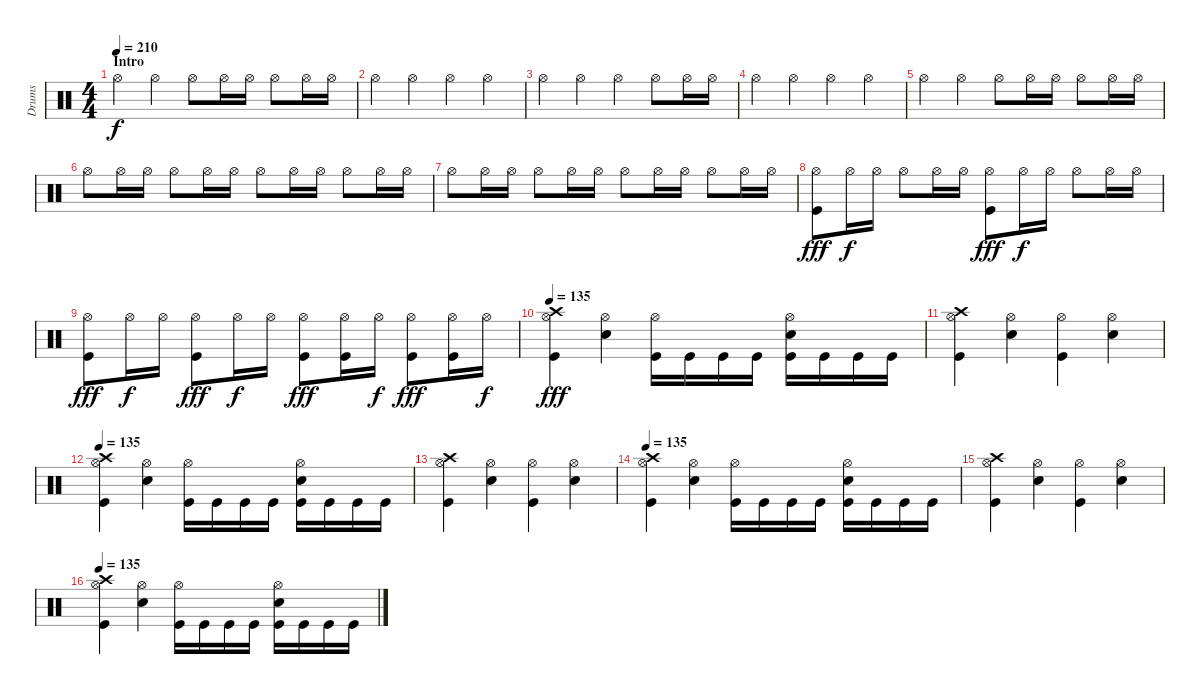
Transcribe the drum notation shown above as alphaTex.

\track ("Drums" "Drums") {instrument percussion}
\staff {score}
\articulation defaults
\ts (4 4)
\section ("" "Intro")
\tempo 210
\tempo 135
\tempo 210
\clef neutral
\ks c "Hi-Hat (open)".4{dy f} "Hi-Hat (open)".4 "Hi-Hat (open)".8 "Hi-Hat (open)".16 "Hi-Hat (open)".16 "Hi-Hat (open)".8 "Hi-Hat (open)".16 "Hi-Hat (open)".16
|
"Hi-Hat (open)".4 "Hi-Hat (open)".4 "Hi-Hat (open)".4 "Hi-Hat (open)".4 |
"Hi-Hat (open)".4 "Hi-Hat (open)".4 "Hi-Hat (open)".4 "Hi-Hat (open)".8 "Hi-Hat (open)".16 "Hi-Hat (open)".16 |
"Hi-Hat (open)".4 "Hi-Hat (open)".4 "Hi-Hat (open)".4 "Hi-Hat (open)".4 |
"Hi-Hat (open)".4 "Hi-Hat (open)".4 "Hi-Hat (open)".8 "Hi-Hat (open)".16 "Hi-Hat (open)".16 "Hi-Hat (open)".8 "Hi-Hat (open)".16 "Hi-Hat (open)".16 |
"Hi-Hat (open)".8 "Hi-Hat (open)".16 "Hi-Hat (open)".16 "Hi-Hat (open)".8 "Hi-Hat (open)".16 "Hi-Hat (open)".16 "Hi-Hat (open)".8 "Hi-Hat (open)".16 "Hi-Hat (open)".16 "Hi-Hat (open)".8 "Hi-Hat (open)".16 "Hi-Hat (open)".16 |
"Hi-Hat (open)".8 "Hi-Hat (open)".16 "Hi-Hat (open)".16 "Hi-Hat (open)".8 "Hi-Hat (open)".16 "Hi-Hat (open)".16 "Hi-Hat (open)".8 "Hi-Hat (open)".16 "Hi-Hat (open)".16 "Hi-Hat (open)".8 "Hi-Hat (open)".16 "Hi-Hat (open)".16 |
("Hi-Hat (open)" "Kick (hit)").8{dy fff} "Hi-Hat (open)".16{dy f} "Hi-Hat (open)".16 "Hi-Hat (open)".8 "Hi-Hat (open)".16 "Hi-Hat (open)".16 ("Hi-Hat (open)" "Kick (hit)").8{dy fff} "Hi-Hat (open)".16{dy f} "Hi-Hat (open)".16 "Hi-Hat (open)".8 "Hi-Hat (open)".16 "Hi-Hat (open)".16 |
("Hi-Hat (open)" "Kick (hit)").8{dy fff} "Hi-Hat (open)".16{dy f} "Hi-Hat (open)".16 ("Hi-Hat (open)" "Kick (hit)").8{dy fff} "Hi-Hat (open)".16{dy f} "Hi-Hat (open)".16 ("Hi-Hat (open)" "Kick (hit)").8{dy fff} ("Hi-Hat (open)" "Kick (hit)").16 "Hi-Hat (open)".16{dy f} ("Hi-Hat (open)" "Kick (hit)").8{dy fff} ("Hi-Hat (open)" "Kick (hit)").16 "Hi-Hat (open)".16{dy f} |
\tempo 135
("Hi-Hat (open)" "Crash high (hit)" "Kick (hit)").4{dy fff} ("Hi-Hat (open)" "Snare (hit) 2").4 ("Hi-Hat (open)" "Kick (hit)").16 "Kick (hit)".16 "Kick (hit)".16 "Kick (hit)".16 ("Hi-Hat (open)" "Snare (hit) 2" "Kick (hit)").16 "Kick (hit)".16 "Kick (hit)".16 "Kick (hit)".16 |
("Hi-Hat (open)" "Crash high (hit)" "Kick (hit)").4 ("Hi-Hat (open)" "Snare (hit) 2").4 ("Hi-Hat (open)" "Kick (hit)").4 ("Hi-Hat (open)" "Snare (hit) 2").4 |
\tempo 135
("Hi-Hat (open)" "Crash high (hit)" "Kick (hit)").4 ("Hi-Hat (open)" "Snare (hit) 2").4 ("Hi-Hat (open)" "Kick (hit)").16 "Kick (hit)".16 "Kick (hit)".16 "Kick (hit)".16 ("Hi-Hat (open)" "Snare (hit) 2" "Kick (hit)").16 "Kick (hit)".16 "Kick (hit)".16 "Kick (hit)".16 |
("Hi-Hat (open)" "Crash high (hit)" "Kick (hit)").4 ("Hi-Hat (open)" "Snare (hit) 2").4 ("Hi-Hat (open)" "Kick (hit)").4 ("Hi-Hat (open)" "Snare (hit) 2").4 |
\tempo 135
("Hi-Hat (open)" "Crash high (hit)" "Kick (hit)").4 ("Hi-Hat (open)" "Snare (hit) 2").4 ("Hi-Hat (open)" "Kick (hit)").16 "Kick (hit)".16 "Kick (hit)".16 "Kick (hit)".16 ("Hi-Hat (open)" "Snare (hit) 2" "Kick (hit)").16 "Kick (hit)".16 "Kick (hit)".16 "Kick (hit)".16 |
("Hi-Hat (open)" "Crash high (hit)" "Kick (hit)").4 ("Hi-Hat (open)" "Snare (hit) 2").4 ("Hi-Hat (open)" "Kick (hit)").4 ("Hi-Hat (open)" "Snare (hit) 2").4 |
\tempo 135
("Hi-Hat (open)" "Crash high (hit)" "Kick (hit)").4 ("Hi-Hat (open)" "Snare (hit) 2").4 ("Hi-Hat (open)" "Kick (hit)").16 "Kick (hit)".16 "Kick (hit)".16 "Kick (hit)".16 ("Hi-Hat (open)" "Snare (hit) 2" "Kick (hit)").16 "Kick (hit)".16 "Kick (hit)".16 "Kick (hit)".16
